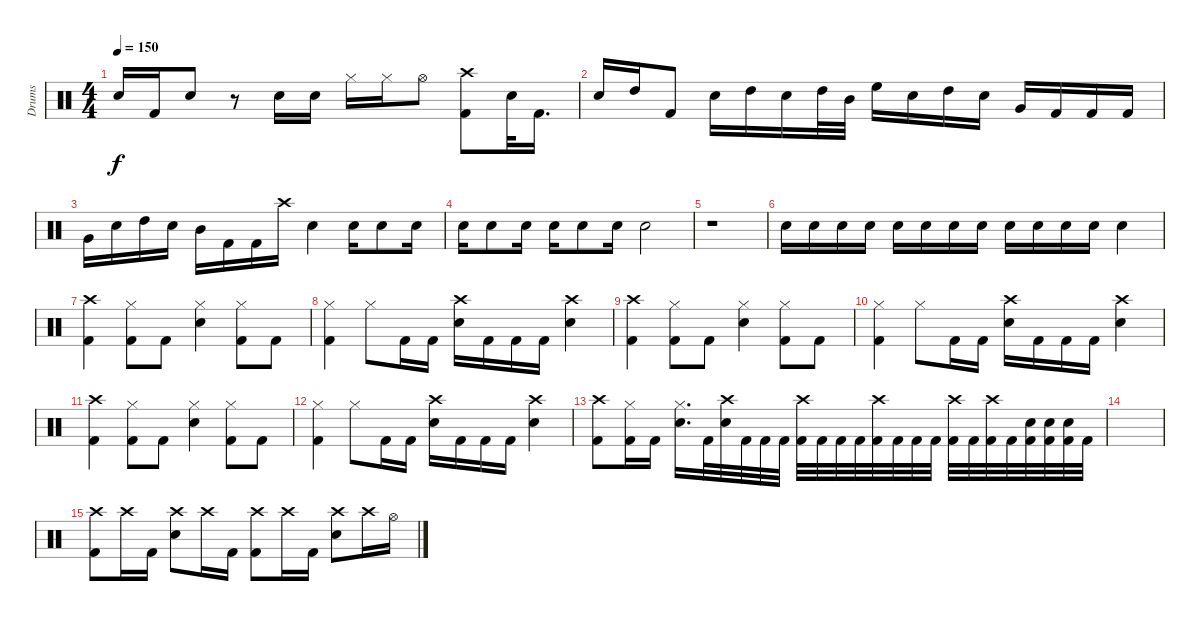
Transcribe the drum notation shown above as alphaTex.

\track ("Drums" "Drums") {instrument percussion}
\staff {score}
\articulation defaults
\ts (4 4)
\tempo 150
\clef neutral
\ks c "Snare (hit) 2".16{dy f} "Kick (hit) 2".16 "Snare (hit) 2".8
r.8 "Snare (hit) 2".16 "Snare (hit) 2".16 "Hi-Hat (closed)".16 "Hi-Hat (closed)".16 "Hi-Hat (open)".8 ("Crash high (hit)" "Kick (hit) 2").8 "Snare (hit) 2".32 "Kick (hit) 2".16{d} |
"Snare (hit) 2".16 "High Tom (hit)".16 "Kick (hit) 2".8 "Snare (hit) 2".16 "High Tom (hit)".16 "Snare (hit) 2".16 "High Tom (hit)".32 "Mid Tom (hit)".32 "High Floor Tom (hit)".16 "Snare (hit) 2".16 "High Tom (hit)".16 "Snare (hit) 2".16 "Very Low Tom (hit)".16 "Kick (hit) 2".16 "Kick (hit) 2".16 "Kick (hit) 2".16 |
"Very Low Tom (hit)".16 "Snare (hit) 2".16 "High Tom (hit)".16 "Snare (hit) 2".16 "Mid Tom (hit)".16 "Kick (hit) 2".16 "Kick (hit) 2".16 "Crash high (hit)".16 "Snare (hit) 2".4 "Snare (hit) 2".16 "Snare (hit) 2".8 "Snare (hit) 2".16 |
"Snare (hit) 2".16 "Snare (hit) 2".8 "Snare (hit) 2".16 "Snare (hit) 2".16 "Snare (hit) 2".8 "Snare (hit) 2".16 "Snare (hit) 2".2 |
r.1 |
"Snare (hit) 2".16 "Snare (hit) 2".16 "Snare (hit) 2".16 "Snare (hit) 2".16 "Snare (hit) 2".16 "Snare (hit) 2".16 "Snare (hit) 2".16 "Snare (hit) 2".16 "Snare (hit) 2".16 "Snare (hit) 2".16 "Snare (hit) 2".16 "Snare (hit) 2".16 "Snare (hit) 2".4 |
("Kick (hit) 2" "Crash high (hit)").4 ("Kick (hit) 2" "Hi-Hat (closed)").8 "Kick (hit) 2".8 ("Hi-Hat (closed)" "Snare (hit) 2").4 ("Kick (hit) 2" "Hi-Hat (closed)").8 "Kick (hit) 2".8 |
("Kick (hit) 2" "Hi-Hat (closed)").4 "Hi-Hat (closed)".8 "Kick (hit) 2".16 "Kick (hit) 2".16 ("Crash high (hit)" "Snare (hit) 2").16 "Kick (hit) 2".16 "Kick (hit) 2".16 "Kick (hit) 2".16 ("Crash high (hit)" "Snare (hit) 2").4 |
("Kick (hit) 2" "Crash high (hit)").4 ("Kick (hit) 2" "Hi-Hat (closed)").8 "Kick (hit) 2".8 ("Hi-Hat (closed)" "Snare (hit) 2").4 ("Kick (hit) 2" "Hi-Hat (closed)").8 "Kick (hit) 2".8 |
("Kick (hit) 2" "Hi-Hat (closed)").4 "Hi-Hat (closed)".8 "Kick (hit) 2".16 "Kick (hit) 2".16 ("Crash high (hit)" "Snare (hit) 2").16 "Kick (hit) 2".16 "Kick (hit) 2".16 "Kick (hit) 2".16 ("Crash high (hit)" "Snare (hit) 2").4 |
("Kick (hit) 2" "Crash high (hit)").4 ("Kick (hit) 2" "Hi-Hat (closed)").8 "Kick (hit) 2".8 ("Hi-Hat (closed)" "Snare (hit) 2").4 ("Kick (hit) 2" "Hi-Hat (closed)").8 "Kick (hit) 2".8 |
("Kick (hit) 2" "Hi-Hat (closed)").4 "Hi-Hat (closed)".8 "Kick (hit) 2".16 "Kick (hit) 2".16 ("Crash high (hit)" "Snare (hit) 2").16 "Kick (hit) 2".16 "Kick (hit) 2".16 "Kick (hit) 2".16 ("Crash high (hit)" "Snare (hit) 2").4 |
("Crash high (hit)" "Kick (hit) 2").8 ("Hi-Hat (closed)" "Kick (hit) 2").16 "Kick (hit) 2".16 ("Hi-Hat (closed)" "Snare (hit) 2").16{d} "Kick (hit) 2".32 ("Snare (hit) 2" "Crash high (hit)").32 "Kick (hit) 2".32 "Kick (hit) 2".32 "Kick (hit) 2".32 ("Kick (hit) 2" "Crash high (hit)").32 "Kick (hit) 2".32 "Kick (hit) 2".32 "Kick (hit) 2".32 ("Kick (hit) 2" "Crash high (hit)").32 "Kick (hit) 2".32 "Kick (hit) 2".32 "Kick (hit) 2".32 ("Kick (hit) 2" "Crash high (hit)").32 "Kick (hit) 2".32 ("Kick (hit) 2" "Crash high (hit)").32 "Kick (hit) 2".32 ("Kick (hit) 2" "Snare (hit) 2").32 ("Kick (hit) 2" "Snare (hit) 2").32 ("Kick (hit) 2" "Snare (hit) 2").32 "Kick (hit) 2".32 |
|
("Crash high (hit)" "Kick (hit) 2").8 "Crash high (hit)".16 "Kick (hit) 2".16 ("Crash high (hit)" "Snare (hit) 2").8 "Crash high (hit)".16 "Kick (hit) 2".16 ("Crash high (hit)" "Kick (hit) 2").8 "Crash high (hit)".16 "Kick (hit) 2".16 ("Crash high (hit)" "Snare (hit) 2").8 "Crash high (hit)".16 "Hi-Hat (open)".16
